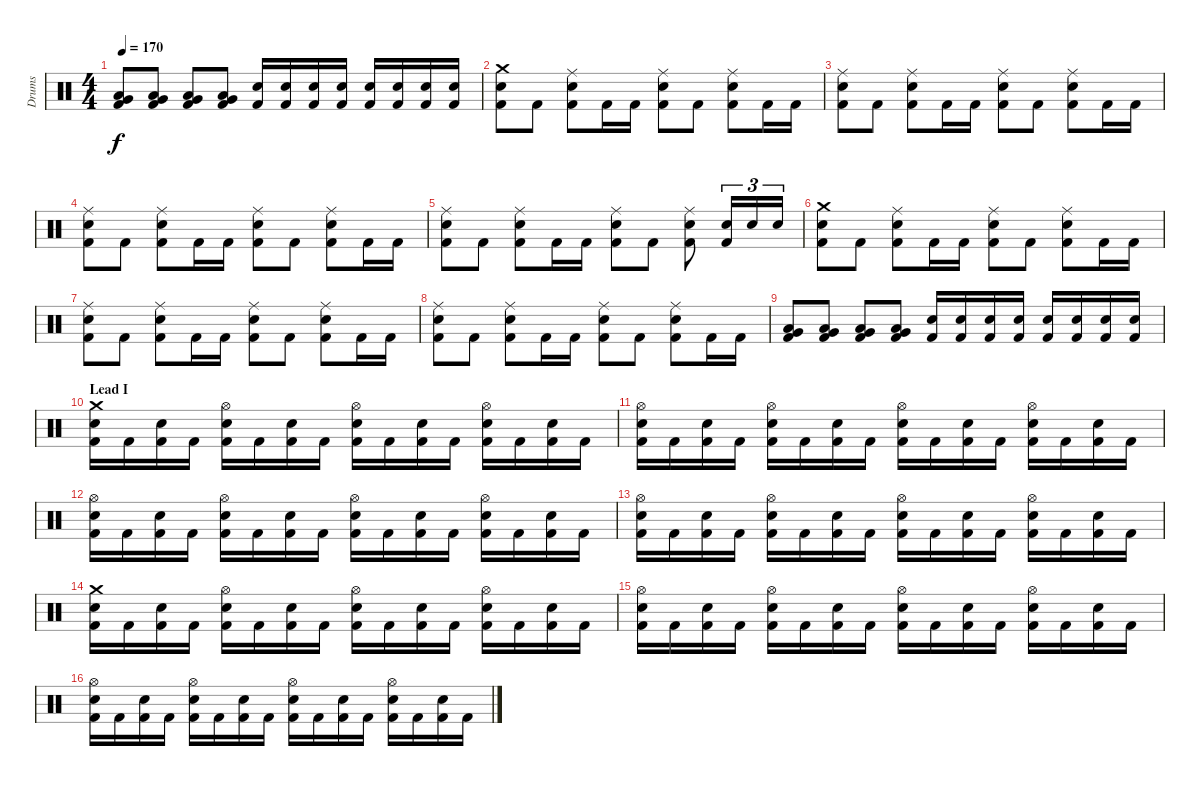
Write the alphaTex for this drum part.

\track ("Drums" "Drums") {instrument percussion}
\staff {score}
\articulation defaults
\ts (4 4)
\tempo 170
\clef neutral
\ks c
("Kick (hit) 2" "Very Low Tom (hit)" "Low Tom (hit)").8{dy f} ("Kick (hit) 2" "Very Low Tom (hit)" "Low Tom (hit)").8 ("Kick (hit) 2" "Very Low Tom (hit)" "Low Tom (hit)").8 ("Kick (hit) 2" "Very Low Tom (hit)" "Low Tom (hit)").8 ("Kick (hit) 2" "Snare (hit) 2").16 ("Kick (hit) 2" "Snare (hit) 2").16 ("Kick (hit) 2" "Snare (hit) 2").16 ("Kick (hit) 2" "Snare (hit) 2").16 ("Kick (hit) 2" "Snare (hit) 2").16 ("Kick (hit) 2" "Snare (hit) 2").16 ("Kick (hit) 2" "Snare (hit) 2").16 ("Kick (hit) 2" "Snare (hit) 2").16 |
("Kick (hit) 2" "Snare (hit) 2" "Crash medium (hit)").8 "Kick (hit) 2".8 ("Kick (hit) 2" "Snare (hit) 2" "Ride (middle)").8 "Kick (hit) 2".16 "Kick (hit) 2".16 ("Kick (hit) 2" "Snare (hit) 2" "Ride (middle)").8 "Kick (hit) 2".8 ("Kick (hit) 2" "Snare (hit) 2" "Ride (middle)").8 "Kick (hit) 2".16 "Kick (hit) 2".16 |
("Kick (hit) 2" "Snare (hit) 2" "Ride (middle)").8 "Kick (hit) 2".8 ("Kick (hit) 2" "Snare (hit) 2" "Ride (middle)").8 "Kick (hit) 2".16 "Kick (hit) 2".16 ("Kick (hit) 2" "Snare (hit) 2" "Ride (middle)").8 "Kick (hit) 2".8 ("Kick (hit) 2" "Snare (hit) 2" "Ride (middle)").8 "Kick (hit) 2".16 "Kick (hit) 2".16 |
("Kick (hit) 2" "Snare (hit) 2" "Ride (middle)").8 "Kick (hit) 2".8 ("Kick (hit) 2" "Snare (hit) 2" "Ride (middle)").8 "Kick (hit) 2".16 "Kick (hit) 2".16 ("Kick (hit) 2" "Snare (hit) 2" "Ride (middle)").8 "Kick (hit) 2".8 ("Kick (hit) 2" "Snare (hit) 2" "Ride (middle)").8 "Kick (hit) 2".16 "Kick (hit) 2".16 |
("Kick (hit) 2" "Snare (hit) 2" "Ride (middle)").8 "Kick (hit) 2".8 ("Kick (hit) 2" "Snare (hit) 2" "Ride (middle)").8 "Kick (hit) 2".16 "Kick (hit) 2".16 ("Kick (hit) 2" "Snare (hit) 2" "Ride (middle)").8 "Kick (hit) 2".8 ("Kick (hit) 2" "Snare (hit) 2" "Ride (middle)").8 ("Kick (hit) 2" "Snare (hit) 2").16{tu (3 2)} "Snare (hit) 2".16{tu (3 2)} "Snare (hit) 2".16{tu (3 2)} |
("Kick (hit) 2" "Snare (hit) 2" "Crash medium (hit)").8 "Kick (hit) 2".8 ("Kick (hit) 2" "Snare (hit) 2" "Ride (middle)").8 "Kick (hit) 2".16 "Kick (hit) 2".16 ("Kick (hit) 2" "Snare (hit) 2" "Ride (middle)").8 "Kick (hit) 2".8 ("Kick (hit) 2" "Snare (hit) 2" "Ride (middle)").8 "Kick (hit) 2".16 "Kick (hit) 2".16 |
("Kick (hit) 2" "Snare (hit) 2" "Ride (middle)").8 "Kick (hit) 2".8 ("Kick (hit) 2" "Snare (hit) 2" "Ride (middle)").8 "Kick (hit) 2".16 "Kick (hit) 2".16 ("Kick (hit) 2" "Snare (hit) 2" "Ride (middle)").8 "Kick (hit) 2".8 ("Kick (hit) 2" "Snare (hit) 2" "Ride (middle)").8 "Kick (hit) 2".16 "Kick (hit) 2".16 |
("Kick (hit) 2" "Snare (hit) 2" "Ride (middle)").8 "Kick (hit) 2".8 ("Kick (hit) 2" "Snare (hit) 2" "Ride (middle)").8 "Kick (hit) 2".16 "Kick (hit) 2".16 ("Kick (hit) 2" "Snare (hit) 2" "Ride (middle)").8 "Kick (hit) 2".8 ("Kick (hit) 2" "Snare (hit) 2" "Ride (middle)").8 "Kick (hit) 2".16 "Kick (hit) 2".16 |
("Kick (hit) 2" "Very Low Tom (hit)" "Low Tom (hit)").8 ("Kick (hit) 2" "Very Low Tom (hit)" "Low Tom (hit)").8 ("Kick (hit) 2" "Very Low Tom (hit)" "Low Tom (hit)").8 ("Kick (hit) 2" "Very Low Tom (hit)" "Low Tom (hit)").8 ("Kick (hit) 2" "Snare (hit) 2").16 ("Kick (hit) 2" "Snare (hit) 2").16 ("Kick (hit) 2" "Snare (hit) 2").16 ("Kick (hit) 2" "Snare (hit) 2").16 ("Kick (hit) 2" "Snare (hit) 2").16 ("Kick (hit) 2" "Snare (hit) 2").16 ("Kick (hit) 2" "Snare (hit) 2").16 ("Kick (hit) 2" "Snare (hit) 2").16 |
\section ("" "Lead I")
("Kick (hit) 2" "Snare (hit) 2" "Crash medium (hit)").16 "Kick (hit) 2".16 ("Kick (hit) 2" "Snare (hit) 2").16 "Kick (hit) 2".16 ("Kick (hit) 2" "Snare (hit) 2" "Hi-Hat (open)").16 "Kick (hit) 2".16 ("Kick (hit) 2" "Snare (hit) 2").16 "Kick (hit) 2".16 ("Kick (hit) 2" "Snare (hit) 2" "Hi-Hat (open)").16 "Kick (hit) 2".16 ("Kick (hit) 2" "Snare (hit) 2").16 "Kick (hit) 2".16 ("Kick (hit) 2" "Snare (hit) 2" "Hi-Hat (open)").16 "Kick (hit) 2".16 ("Kick (hit) 2" "Snare (hit) 2").16 "Kick (hit) 2".16 |
("Kick (hit) 2" "Snare (hit) 2" "Hi-Hat (open)").16 "Kick (hit) 2".16 ("Kick (hit) 2" "Snare (hit) 2").16 "Kick (hit) 2".16 ("Kick (hit) 2" "Snare (hit) 2" "Hi-Hat (open)").16 "Kick (hit) 2".16 ("Kick (hit) 2" "Snare (hit) 2").16 "Kick (hit) 2".16 ("Kick (hit) 2" "Snare (hit) 2" "Hi-Hat (open)").16 "Kick (hit) 2".16 ("Kick (hit) 2" "Snare (hit) 2").16 "Kick (hit) 2".16 ("Kick (hit) 2" "Snare (hit) 2" "Hi-Hat (open)").16 "Kick (hit) 2".16 ("Kick (hit) 2" "Snare (hit) 2").16 "Kick (hit) 2".16 |
("Kick (hit) 2" "Snare (hit) 2" "Hi-Hat (open)").16 "Kick (hit) 2".16 ("Kick (hit) 2" "Snare (hit) 2").16 "Kick (hit) 2".16 ("Kick (hit) 2" "Snare (hit) 2" "Hi-Hat (open)").16 "Kick (hit) 2".16 ("Kick (hit) 2" "Snare (hit) 2").16 "Kick (hit) 2".16 ("Kick (hit) 2" "Snare (hit) 2" "Hi-Hat (open)").16 "Kick (hit) 2".16 ("Kick (hit) 2" "Snare (hit) 2").16 "Kick (hit) 2".16 ("Kick (hit) 2" "Snare (hit) 2" "Hi-Hat (open)").16 "Kick (hit) 2".16 ("Kick (hit) 2" "Snare (hit) 2").16 "Kick (hit) 2".16 |
("Kick (hit) 2" "Snare (hit) 2" "Hi-Hat (open)").16 "Kick (hit) 2".16 ("Kick (hit) 2" "Snare (hit) 2").16 "Kick (hit) 2".16 ("Kick (hit) 2" "Snare (hit) 2" "Hi-Hat (open)").16 "Kick (hit) 2".16 ("Kick (hit) 2" "Snare (hit) 2").16 "Kick (hit) 2".16 ("Kick (hit) 2" "Snare (hit) 2" "Hi-Hat (open)").16 "Kick (hit) 2".16 ("Kick (hit) 2" "Snare (hit) 2").16 "Kick (hit) 2".16 ("Kick (hit) 2" "Snare (hit) 2" "Hi-Hat (open)").16 "Kick (hit) 2".16 ("Kick (hit) 2" "Snare (hit) 2").16 "Kick (hit) 2".16 |
("Kick (hit) 2" "Snare (hit) 2" "Crash medium (hit)").16 "Kick (hit) 2".16 ("Kick (hit) 2" "Snare (hit) 2").16 "Kick (hit) 2".16 ("Kick (hit) 2" "Snare (hit) 2" "Hi-Hat (open)").16 "Kick (hit) 2".16 ("Kick (hit) 2" "Snare (hit) 2").16 "Kick (hit) 2".16 ("Kick (hit) 2" "Snare (hit) 2" "Hi-Hat (open)").16 "Kick (hit) 2".16 ("Kick (hit) 2" "Snare (hit) 2").16 "Kick (hit) 2".16 ("Kick (hit) 2" "Snare (hit) 2" "Hi-Hat (open)").16 "Kick (hit) 2".16 ("Kick (hit) 2" "Snare (hit) 2").16 "Kick (hit) 2".16 |
("Kick (hit) 2" "Snare (hit) 2" "Hi-Hat (open)").16 "Kick (hit) 2".16 ("Kick (hit) 2" "Snare (hit) 2").16 "Kick (hit) 2".16 ("Kick (hit) 2" "Snare (hit) 2" "Hi-Hat (open)").16 "Kick (hit) 2".16 ("Kick (hit) 2" "Snare (hit) 2").16 "Kick (hit) 2".16 ("Kick (hit) 2" "Snare (hit) 2" "Hi-Hat (open)").16 "Kick (hit) 2".16 ("Kick (hit) 2" "Snare (hit) 2").16 "Kick (hit) 2".16 ("Kick (hit) 2" "Snare (hit) 2" "Hi-Hat (open)").16 "Kick (hit) 2".16 ("Kick (hit) 2" "Snare (hit) 2").16 "Kick (hit) 2".16 |
("Kick (hit) 2" "Snare (hit) 2" "Hi-Hat (open)").16 "Kick (hit) 2".16 ("Kick (hit) 2" "Snare (hit) 2").16 "Kick (hit) 2".16 ("Kick (hit) 2" "Snare (hit) 2" "Hi-Hat (open)").16 "Kick (hit) 2".16 ("Kick (hit) 2" "Snare (hit) 2").16 "Kick (hit) 2".16 ("Kick (hit) 2" "Snare (hit) 2" "Hi-Hat (open)").16 "Kick (hit) 2".16 ("Kick (hit) 2" "Snare (hit) 2").16 "Kick (hit) 2".16 ("Kick (hit) 2" "Snare (hit) 2" "Hi-Hat (open)").16 "Kick (hit) 2".16 ("Kick (hit) 2" "Snare (hit) 2").16 "Kick (hit) 2".16
